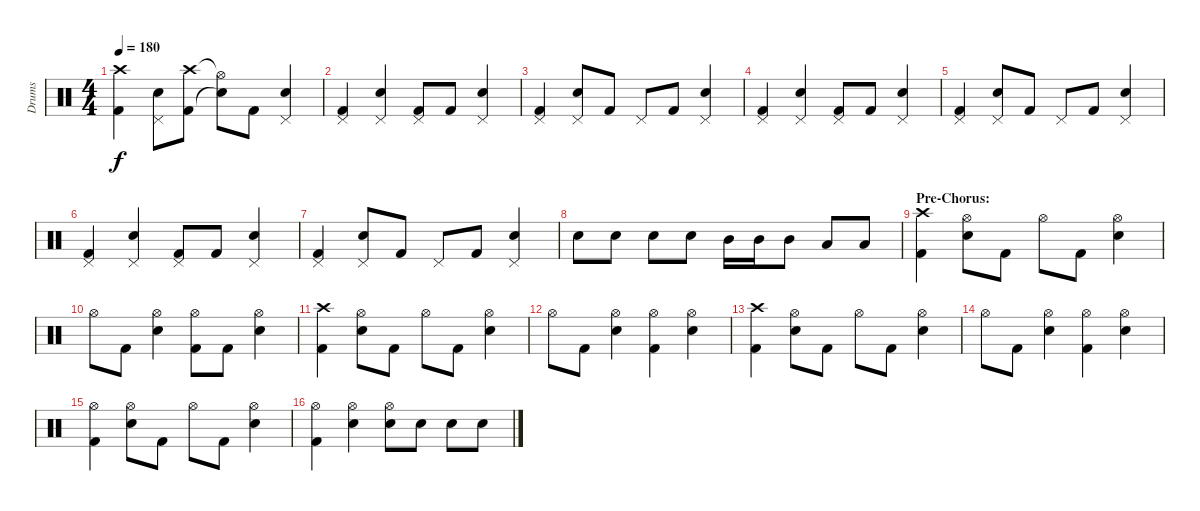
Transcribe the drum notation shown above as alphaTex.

\track ("Drums" "Drums") {instrument percussion}
\staff {score}
\articulation defaults
\ts (4 4)
\tempo 180
\clef neutral
\ks c
("Crash high (hit)" "Kick (hit) 2").4{dy f} ("Pedal Hi-Hat (hit)" "Electric Snare (hit)").8 ("Crash high (hit)" "Kick (hit) 2").8 ("Hi-Hat (open)"{t} "Snare (hit)"{t}).8 "Kick (hit) 2".8 ("Pedal Hi-Hat (hit)" "Electric Snare (hit)").4 |
("Pedal Hi-Hat (hit)" "Kick (hit) 2").4 ("Pedal Hi-Hat (hit)" "Electric Snare (hit)").4 ("Pedal Hi-Hat (hit)" "Kick (hit) 2").8 "Kick (hit) 2".8 ("Pedal Hi-Hat (hit)" "Electric Snare (hit)").4 |
("Pedal Hi-Hat (hit)" "Kick (hit) 2").4 ("Pedal Hi-Hat (hit)" "Electric Snare (hit)").8 "Kick (hit) 2".8 "Pedal Hi-Hat (hit)".8 "Kick (hit) 2".8 ("Pedal Hi-Hat (hit)" "Electric Snare (hit)").4 |
("Pedal Hi-Hat (hit)" "Kick (hit) 2").4 ("Pedal Hi-Hat (hit)" "Electric Snare (hit)").4 ("Pedal Hi-Hat (hit)" "Kick (hit) 2").8 "Kick (hit) 2".8 ("Pedal Hi-Hat (hit)" "Electric Snare (hit)").4 |
("Pedal Hi-Hat (hit)" "Kick (hit) 2").4 ("Pedal Hi-Hat (hit)" "Electric Snare (hit)").8 "Kick (hit) 2".8 "Pedal Hi-Hat (hit)".8 "Kick (hit) 2".8 ("Pedal Hi-Hat (hit)" "Electric Snare (hit)").4 |
("Pedal Hi-Hat (hit)" "Kick (hit) 2").4 ("Pedal Hi-Hat (hit)" "Electric Snare (hit)").4 ("Pedal Hi-Hat (hit)" "Kick (hit) 2").8 "Kick (hit) 2".8 ("Pedal Hi-Hat (hit)" "Electric Snare (hit)").4 |
("Pedal Hi-Hat (hit)" "Kick (hit) 2").4 ("Pedal Hi-Hat (hit)" "Electric Snare (hit)").8 "Kick (hit) 2".8 "Pedal Hi-Hat (hit)".8 "Kick (hit) 2".8 ("Pedal Hi-Hat (hit)" "Electric Snare (hit)").4 |
"Electric Snare (hit)".8 "Electric Snare (hit)".8 "Electric Snare (hit)".8 "Electric Snare (hit)".8 "Mid Tom (hit)".16 "Mid Tom (hit)".16 "Mid Tom (hit)".8 "Low Tom (hit)".8 "Low Tom (hit)".8 |
\section ("" "Pre-Chorus:")
("Crash high (hit)" "Kick (hit) 2").4 ("Hi-Hat (open)" "Electric Snare (hit)").8 "Kick (hit) 2".8 "Hi-Hat (open)".8 "Kick (hit) 2".8 ("Hi-Hat (open)" "Electric Snare (hit)").4 |
"Hi-Hat (open)".8 "Kick (hit) 2".8 ("Hi-Hat (open)" "Electric Snare (hit)").4 ("Hi-Hat (open)" "Kick (hit) 2").8 "Kick (hit) 2".8 ("Hi-Hat (open)" "Electric Snare (hit)").4 |
("Crash high (hit)" "Kick (hit) 2").4 ("Hi-Hat (open)" "Electric Snare (hit)").8 "Kick (hit) 2".8 "Hi-Hat (open)".8 "Kick (hit) 2".8 ("Hi-Hat (open)" "Electric Snare (hit)").4 |
"Hi-Hat (open)".8 "Kick (hit) 2".8 ("Hi-Hat (open)" "Electric Snare (hit)").4 ("Hi-Hat (open)" "Kick (hit) 2").4 ("Hi-Hat (open)" "Electric Snare (hit)").4 |
("Crash high (hit)" "Kick (hit) 2").4 ("Hi-Hat (open)" "Electric Snare (hit)").8 "Kick (hit) 2".8 "Hi-Hat (open)".8 "Kick (hit) 2".8 ("Hi-Hat (open)" "Electric Snare (hit)").4 |
"Hi-Hat (open)".8 "Kick (hit) 2".8 ("Hi-Hat (open)" "Electric Snare (hit)").4 ("Hi-Hat (open)" "Kick (hit) 2").4 ("Hi-Hat (open)" "Electric Snare (hit)").4 |
("Hi-Hat (open)" "Kick (hit) 2").4 ("Hi-Hat (open)" "Electric Snare (hit)").8 "Kick (hit) 2".8 "Hi-Hat (open)".8 "Kick (hit) 2".8 ("Hi-Hat (open)" "Electric Snare (hit)").4 |
("Hi-Hat (open)" "Kick (hit) 2").4 ("Hi-Hat (open)" "Electric Snare (hit)").4 ("Hi-Hat (open)" "Electric Snare (hit)").8 "Electric Snare (hit)".8 "Electric Snare (hit)".8 "Electric Snare (hit)".8
